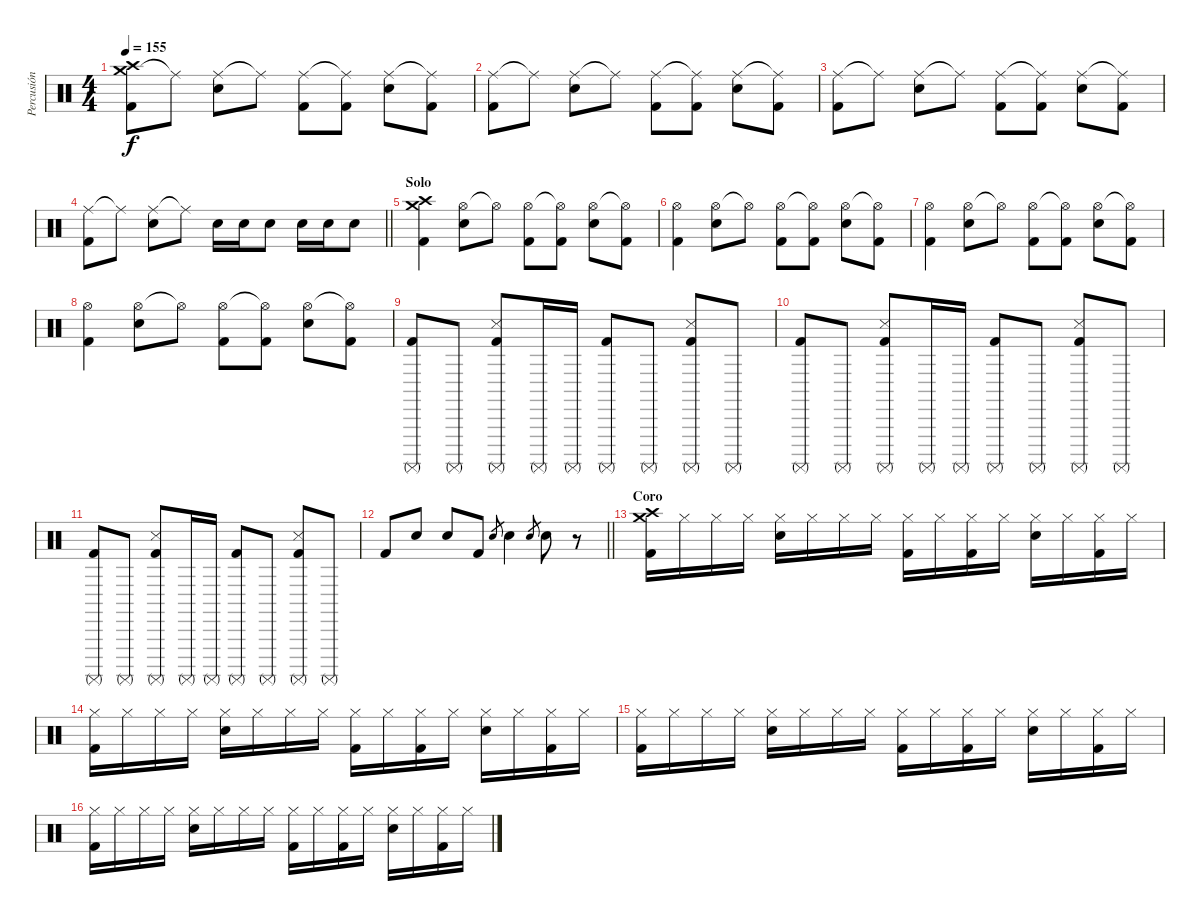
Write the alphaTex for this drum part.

\track ("Percusión" "Percusión") {instrument percussion}
\staff {score}
\articulation defaults
\ts (4 4)
\tempo 155
\clef neutral
\ks c
("Crash medium (hit)" "Crash high (hit)" "Kick (hit) 2").8{dy f} "Ride (middle)"{t}.8 ("Ride (middle)" "Electric Snare (hit)").8 "Ride (middle)"{t}.8 ("Ride (middle)" "Kick (hit) 2").8 ("Ride (middle)"{t} "Kick (hit) 2").8 ("Ride (middle)" "Electric Snare (hit)").8 ("Ride (middle)"{t} "Kick (hit) 2").8 |
("Ride (middle)" "Kick (hit) 2").8 "Ride (middle)"{t}.8 ("Ride (middle)" "Electric Snare (hit)").8 "Ride (middle)"{t}.8 ("Ride (middle)" "Kick (hit) 2").8 ("Ride (middle)"{t} "Kick (hit) 2").8 ("Ride (middle)" "Electric Snare (hit)").8 ("Ride (middle)"{t} "Kick (hit) 2").8 |
("Ride (middle)" "Kick (hit) 2").8 "Ride (middle)"{t}.8 ("Ride (middle)" "Electric Snare (hit)").8 "Ride (middle)"{t}.8 ("Ride (middle)" "Kick (hit) 2").8 ("Ride (middle)"{t} "Kick (hit) 2").8 ("Ride (middle)" "Electric Snare (hit)").8 ("Ride (middle)"{t} "Kick (hit) 2").8 |
\barLineRight lightlight
("Ride (middle)" "Kick (hit) 2").8 "Ride (middle)"{t}.8 ("Ride (middle)" "Electric Snare (hit)").8 "Ride (middle)"{t}.8 "Electric Snare (hit)".16 "Electric Snare (hit)".16 "Electric Snare (hit)".8 "Electric Snare (hit)".16 "Electric Snare (hit)".16 "Electric Snare (hit)".8 |
\section ("" "Solo")
("Crash high (hit)" "Crash medium (hit)" "Kick (hit) 2").4 ("Hi-Hat (open)" "Electric Snare (hit)").8 "Hi-Hat (open)"{t}.8 ("Hi-Hat (open)" "Kick (hit) 2").8 ("Hi-Hat (open)"{t} "Kick (hit) 2").8 ("Hi-Hat (open)" "Electric Snare (hit)").8 ("Hi-Hat (open)"{t} "Kick (hit) 2").8 |
("Hi-Hat (open)" "Kick (hit) 2").4 ("Hi-Hat (open)" "Electric Snare (hit)").8 "Hi-Hat (open)"{t}.8 ("Hi-Hat (open)" "Kick (hit) 2").8 ("Hi-Hat (open)"{t} "Kick (hit) 2").8 ("Hi-Hat (open)" "Electric Snare (hit)").8 ("Hi-Hat (open)"{t} "Kick (hit) 2").8 |
("Hi-Hat (open)" "Kick (hit) 2").4 ("Hi-Hat (open)" "Electric Snare (hit)").8 "Hi-Hat (open)"{t}.8 ("Hi-Hat (open)" "Kick (hit) 2").8 ("Hi-Hat (open)"{t} "Kick (hit) 2").8 ("Hi-Hat (open)" "Electric Snare (hit)").8 ("Hi-Hat (open)"{t} "Kick (hit) 2").8 |
("Hi-Hat (open)" "Kick (hit) 2").4 ("Hi-Hat (open)" "Electric Snare (hit)").8 "Hi-Hat (open)"{t}.8 ("Hi-Hat (open)" "Kick (hit) 2").8 ("Hi-Hat (open)"{t} "Kick (hit) 2").8 ("Hi-Hat (open)" "Electric Snare (hit)").8 ("Hi-Hat (open)"{t} "Kick (hit) 2").8 |
("Surdo (mute)" "Kick (hit) 2").8 "Surdo (mute)".8 ("Surdo (mute)" "Snare (side stick) 3" "Kick (hit) 2").8 "Surdo (mute)".16 "Surdo (mute)".16 ("Surdo (mute)" "Kick (hit) 2").8 "Surdo (mute)".8 ("Surdo (mute)" "Snare (side stick) 3" "Kick (hit) 2").8 "Surdo (mute)".8 |
("Surdo (mute)" "Kick (hit) 2").8 "Surdo (mute)".8 ("Surdo (mute)" "Snare (side stick) 3" "Kick (hit) 2").8 "Surdo (mute)".16 "Surdo (mute)".16 ("Surdo (mute)" "Kick (hit) 2").8 "Surdo (mute)".8 ("Surdo (mute)" "Snare (side stick) 3" "Kick (hit) 2").8 "Surdo (mute)".8 |
("Surdo (mute)" "Kick (hit) 2").8 "Surdo (mute)".8 ("Surdo (mute)" "Snare (side stick) 3" "Kick (hit) 2").8 "Surdo (mute)".16 "Surdo (mute)".16 ("Surdo (mute)" "Kick (hit) 2").8 "Surdo (mute)".8 ("Surdo (mute)" "Snare (side stick) 3" "Kick (hit) 2").8 "Surdo (mute)".8 |
\barLineRight lightlight "Kick (hit) 2".8 "Electric Snare (hit)".8 "Electric Snare (hit)".8 "Kick (hit) 2".8 "Electric Snare (hit)".8{gr} "Electric Snare (hit)".4 "Electric Snare (hit)".8{gr} "Electric Snare (hit)".8
r.8 |
\section ("" "Coro")
("Crash high (hit)" "Crash medium (hit)" "Kick (hit) 2").16 "Hi-Hat (closed)".16 "Hi-Hat (closed)".16 "Hi-Hat (closed)".16 ("Hi-Hat (closed)" "Electric Snare (hit)").16 "Hi-Hat (closed)".16 "Hi-Hat (closed)".16 "Hi-Hat (closed)".16 ("Hi-Hat (closed)" "Kick (hit) 2").16 "Hi-Hat (closed)".16 ("Hi-Hat (closed)" "Kick (hit) 2").16 "Hi-Hat (closed)".16 ("Hi-Hat (closed)" "Electric Snare (hit)").16 "Hi-Hat (closed)".16 ("Hi-Hat (closed)" "Kick (hit) 2").16 "Hi-Hat (closed)".16 |
("Hi-Hat (closed)" "Kick (hit) 2").16 "Hi-Hat (closed)".16 "Hi-Hat (closed)".16 "Hi-Hat (closed)".16 ("Hi-Hat (closed)" "Electric Snare (hit)").16 "Hi-Hat (closed)".16 "Hi-Hat (closed)".16 "Hi-Hat (closed)".16 ("Hi-Hat (closed)" "Kick (hit) 2").16 "Hi-Hat (closed)".16 ("Hi-Hat (closed)" "Kick (hit) 2").16 "Hi-Hat (closed)".16 ("Hi-Hat (closed)" "Electric Snare (hit)").16 "Hi-Hat (closed)".16 ("Hi-Hat (closed)" "Kick (hit) 2").16 "Hi-Hat (closed)".16 |
("Hi-Hat (closed)" "Kick (hit) 2").16 "Hi-Hat (closed)".16 "Hi-Hat (closed)".16 "Hi-Hat (closed)".16 ("Hi-Hat (closed)" "Electric Snare (hit)").16 "Hi-Hat (closed)".16 "Hi-Hat (closed)".16 "Hi-Hat (closed)".16 ("Hi-Hat (closed)" "Kick (hit) 2").16 "Hi-Hat (closed)".16 ("Hi-Hat (closed)" "Kick (hit) 2").16 "Hi-Hat (closed)".16 ("Hi-Hat (closed)" "Electric Snare (hit)").16 "Hi-Hat (closed)".16 ("Hi-Hat (closed)" "Kick (hit) 2").16 "Hi-Hat (closed)".16 |
("Hi-Hat (closed)" "Kick (hit) 2").16 "Hi-Hat (closed)".16 "Hi-Hat (closed)".16 "Hi-Hat (closed)".16 ("Hi-Hat (closed)" "Electric Snare (hit)").16 "Hi-Hat (closed)".16 "Hi-Hat (closed)".16 "Hi-Hat (closed)".16 ("Hi-Hat (closed)" "Kick (hit) 2").16 "Hi-Hat (closed)".16 ("Hi-Hat (closed)" "Kick (hit) 2").16 "Hi-Hat (closed)".16 ("Hi-Hat (closed)" "Electric Snare (hit)").16 "Hi-Hat (closed)".16 ("Hi-Hat (closed)" "Kick (hit) 2").16 "Hi-Hat (closed)".16
